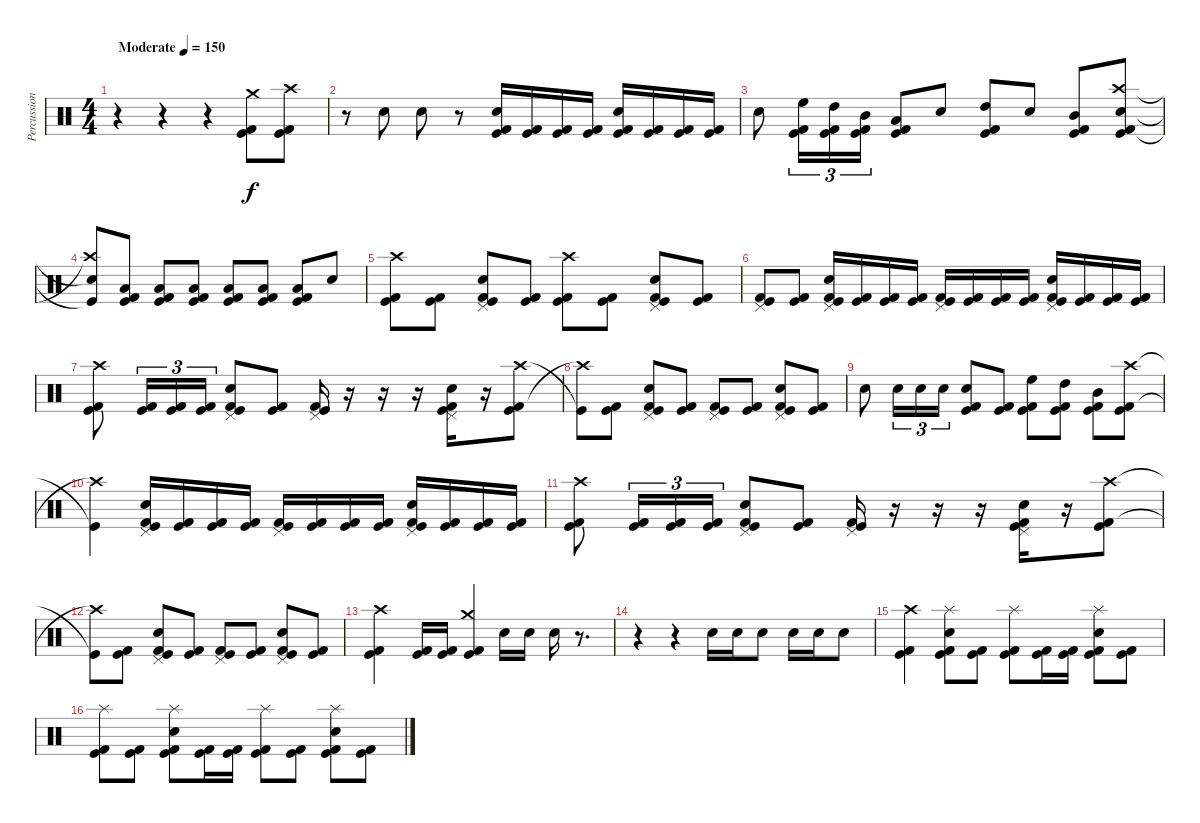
\track ("Percussion" "Percussion") {instrument percussion}
\staff {score}
\articulation defaults
\ts (4 4)
\tempo (150 "Moderate")
\clef neutral
\ks c
r.4{dy f} r.4 r.4 ("Kick (hit) 2" "Crash medium (hit)" "Kick (hit)").8 ("Kick (hit) 2" "Crash high (hit)" "Kick (hit)").8 |
r.8 "Snare (hit) 2".8 "Snare (hit) 2".8 r.8 ("Kick (hit) 2" "Snare (hit) 2" "Kick (hit)").16 ("Kick (hit) 2" "Kick (hit)").16 ("Kick (hit) 2" "Kick (hit)").16 ("Kick (hit) 2" "Kick (hit)").16 ("Kick (hit) 2" "Snare (hit) 2" "Kick (hit)").16 ("Kick (hit) 2" "Kick (hit)").16 ("Kick (hit) 2" "Kick (hit)").16 ("Kick (hit) 2" "Kick (hit)").16 |
"Snare (hit) 2".8 ("Kick (hit) 2" "High Floor Tom (hit)" "Kick (hit)").16{tu (3 2)} ("Kick (hit) 2" "High Tom (hit)" "Kick (hit)").16{tu (3 2)} ("Kick (hit) 2" "Mid Tom (hit)" "Kick (hit)").16{tu (3 2)} ("Kick (hit) 2" "Low Tom (hit)" "Kick (hit)").8 "Snare (hit) 2".8 ("Kick (hit) 2" "High Tom (hit)" "Kick (hit)").8 "Snare (hit) 2".8 ("Kick (hit) 2" "Mid Tom (hit)" "Kick (hit)").8 ("Kick (hit) 2" "Crash high (hit)" "Snare (hit) 2" "Kick (hit)").8 |
("Crash high (hit)"{t} "Snare (hit) 2"{t} "Kick (hit)"{t}).8 ("Kick (hit) 2" "Low Tom (hit)" "Kick (hit)").8 ("Kick (hit) 2" "Low Tom (hit)" "Kick (hit)").8 ("Kick (hit) 2" "Low Tom (hit)" "Kick (hit)").8 ("Kick (hit) 2" "Low Tom (hit)" "Kick (hit)").8 ("Kick (hit) 2" "Low Tom (hit)" "Kick (hit)").8 ("Kick (hit) 2" "Low Tom (hit)" "Kick (hit)").8 "Snare (hit) 2".8 |
("Kick (hit) 2" "Crash high (hit)" "Kick (hit)").8 ("Kick (hit) 2" "Kick (hit)").8 ("Kick (hit) 2" "Pedal Hi-Hat (hit)" "Snare (hit) 2" "Kick (hit)").8 ("Kick (hit) 2" "Kick (hit)").8 ("Kick (hit) 2" "Crash high (hit)" "Kick (hit)").8 ("Kick (hit) 2" "Kick (hit)").8 ("Kick (hit) 2" "Pedal Hi-Hat (hit)" "Snare (hit) 2" "Kick (hit)").8 ("Kick (hit) 2" "Kick (hit)").8 |
("Kick (hit) 2" "Pedal Hi-Hat (hit)" "Kick (hit)").8 ("Kick (hit) 2" "Kick (hit)").8 ("Kick (hit) 2" "Pedal Hi-Hat (hit)" "Snare (hit) 2" "Kick (hit)").16 ("Kick (hit) 2" "Kick (hit)").16 ("Kick (hit) 2" "Kick (hit)").16 ("Kick (hit) 2" "Kick (hit)").16 ("Kick (hit) 2" "Pedal Hi-Hat (hit)" "Kick (hit)").16 ("Kick (hit) 2" "Kick (hit)").16 ("Kick (hit) 2" "Kick (hit)").16 ("Kick (hit) 2" "Kick (hit)").16 ("Kick (hit) 2" "Pedal Hi-Hat (hit)" "Snare (hit) 2" "Kick (hit)").16 ("Kick (hit) 2" "Kick (hit)").16 ("Kick (hit) 2" "Kick (hit)").16 ("Kick (hit) 2" "Kick (hit)").16 |
("Kick (hit) 2" "Crash high (hit)" "Kick (hit)").8 ("Kick (hit) 2" "Kick (hit)").16{tu (3 2)} ("Kick (hit) 2" "Kick (hit)").16{tu (3 2)} ("Kick (hit) 2" "Kick (hit)").16{tu (3 2)} ("Kick (hit) 2" "Pedal Hi-Hat (hit)" "Snare (hit) 2" "Kick (hit)").8 ("Kick (hit) 2" "Kick (hit)").8 ("Kick (hit) 2" "Pedal Hi-Hat (hit)" "Kick (hit)").16 r.16 r.16 r.16 ("Kick (hit) 2" "Pedal Hi-Hat (hit)" "Snare (hit) 2" "Kick (hit)").16 r.16 ("Kick (hit) 2" "Crash high (hit)" "Kick (hit)").8 |
("Crash high (hit)"{t} "Kick (hit)"{t}).8 ("Kick (hit) 2" "Kick (hit)").8 ("Kick (hit) 2" "Pedal Hi-Hat (hit)" "Snare (hit) 2" "Kick (hit)").8 ("Kick (hit) 2" "Kick (hit)").8 ("Kick (hit) 2" "Pedal Hi-Hat (hit)" "Kick (hit)").8 ("Kick (hit) 2" "Kick (hit)").8 ("Kick (hit) 2" "Pedal Hi-Hat (hit)" "Snare (hit) 2" "Kick (hit)").8 ("Kick (hit) 2" "Kick (hit)").8 |
"Snare (hit) 2".8 "Snare (hit) 2".16{tu (3 2)} "Snare (hit) 2".16{tu (3 2)} "Snare (hit) 2".16{tu (3 2)} ("Kick (hit) 2" "Snare (hit) 2" "Kick (hit)").8 ("Kick (hit) 2" "Kick (hit)").8 ("Kick (hit) 2" "High Floor Tom (hit)" "Kick (hit)").8 ("Kick (hit) 2" "High Tom (hit)" "Kick (hit)").8 ("Kick (hit) 2" "Mid Tom (hit)" "Kick (hit)").8 ("Kick (hit) 2" "Crash high (hit)" "Kick (hit)").8 |
("Crash high (hit)"{t} "Kick (hit)"{t}).4 ("Kick (hit) 2" "Pedal Hi-Hat (hit)" "Snare (hit) 2" "Kick (hit)").16 ("Kick (hit) 2" "Kick (hit)").16 ("Kick (hit) 2" "Kick (hit)").16 ("Kick (hit) 2" "Kick (hit)").16 ("Kick (hit) 2" "Pedal Hi-Hat (hit)" "Kick (hit)").16 ("Kick (hit) 2" "Kick (hit)").16 ("Kick (hit) 2" "Kick (hit)").16 ("Kick (hit) 2" "Kick (hit)").16 ("Kick (hit) 2" "Pedal Hi-Hat (hit)" "Snare (hit) 2" "Kick (hit)").16 ("Kick (hit) 2" "Kick (hit)").16 ("Kick (hit) 2" "Kick (hit)").16 ("Kick (hit) 2" "Kick (hit)").16 |
("Kick (hit) 2" "Crash high (hit)" "Kick (hit)").8 ("Kick (hit) 2" "Kick (hit)").16{tu (3 2)} ("Kick (hit) 2" "Kick (hit)").16{tu (3 2)} ("Kick (hit) 2" "Kick (hit)").16{tu (3 2)} ("Kick (hit) 2" "Pedal Hi-Hat (hit)" "Snare (hit) 2" "Kick (hit)").8 ("Kick (hit) 2" "Kick (hit)").8 ("Kick (hit) 2" "Pedal Hi-Hat (hit)" "Kick (hit)").16 r.16 r.16 r.16 ("Kick (hit) 2" "Pedal Hi-Hat (hit)" "Snare (hit) 2" "Kick (hit)").16 r.16 ("Kick (hit) 2" "Crash high (hit)" "Kick (hit)").8 |
("Crash high (hit)"{t} "Kick (hit)"{t}).8 ("Kick (hit) 2" "Kick (hit)").8 ("Kick (hit) 2" "Pedal Hi-Hat (hit)" "Snare (hit) 2" "Kick (hit)").8 ("Kick (hit) 2" "Kick (hit)").8 ("Kick (hit) 2" "Pedal Hi-Hat (hit)" "Kick (hit)").8 ("Kick (hit) 2" "Kick (hit)").8 ("Kick (hit) 2" "Pedal Hi-Hat (hit)" "Snare (hit) 2" "Kick (hit)").8 ("Kick (hit) 2" "Kick (hit)").8 |
("Kick (hit) 2" "Crash high (hit)" "Kick (hit)").4 ("Kick (hit) 2" "Kick (hit)").16 ("Kick (hit) 2" "Kick (hit)").16 ("Kick (hit) 2" "Crash medium (hit)" "Kick (hit)").4 "Snare (hit) 2".16 "Snare (hit) 2".16 "Snare (hit) 2".16 r.8{d} |
r.4 r.4 "Snare (hit) 2".16 "Snare (hit) 2".16 "Snare (hit) 2".8 "Snare (hit) 2".16 "Snare (hit) 2".16 "Snare (hit) 2".8 |
("Kick (hit) 2" "Crash high (hit)" "Kick (hit)").4 ("Kick (hit) 2" "Splash (hit)" "Snare (hit) 2" "Kick (hit)").8 ("Kick (hit) 2" "Kick (hit)").8 ("Kick (hit) 2" "Splash (hit)" "Kick (hit)").8 ("Kick (hit) 2" "Kick (hit)").16 ("Kick (hit) 2" "Kick (hit)").16 ("Kick (hit) 2" "Splash (hit)" "Snare (hit) 2" "Kick (hit)").8 ("Kick (hit) 2" "Kick (hit)").8 |
("Kick (hit) 2" "Splash (hit)" "Kick (hit)").8 ("Kick (hit) 2" "Kick (hit)").8 ("Kick (hit) 2" "Splash (hit)" "Snare (hit) 2" "Kick (hit)").8 ("Kick (hit) 2" "Kick (hit)").16 ("Kick (hit) 2" "Kick (hit)").16 ("Kick (hit) 2" "Splash (hit)" "Kick (hit)").8 ("Kick (hit) 2" "Kick (hit)").8 ("Kick (hit) 2" "Splash (hit)" "Snare (hit) 2" "Kick (hit)").8 ("Kick (hit) 2" "Kick (hit)").8
